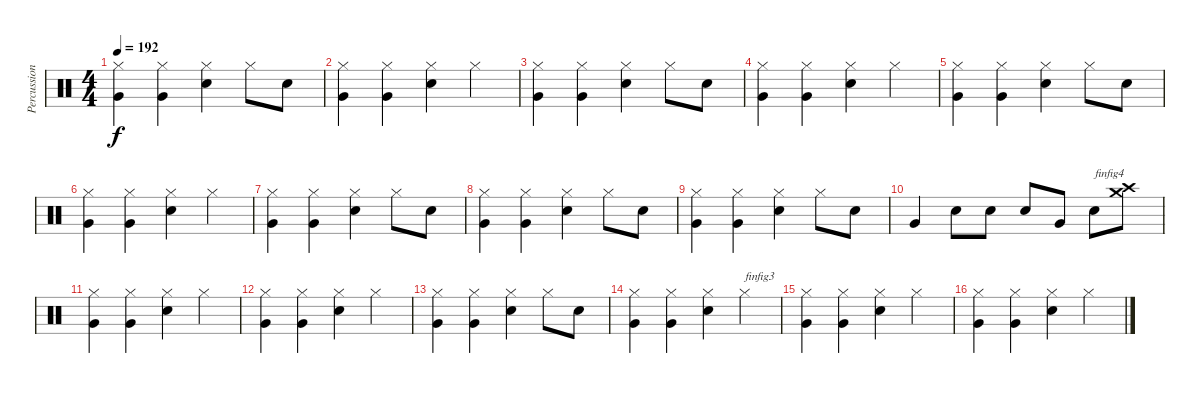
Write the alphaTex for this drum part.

\track ("Percussions" "Percussion") {instrument percussion}
\staff {score}
\articulation defaults
\ts (4 4)
\tempo 192
\clef neutral
\ks c
("Very Low Tom (hit)" "Hi-Hat (closed)").4{dy f} ("Very Low Tom (hit)" "Hi-Hat (closed)").4 ("Snare (hit) 2" "Hi-Hat (closed)").4 "Hi-Hat (closed)".8 "Snare (hit) 2".8 |
("Very Low Tom (hit)" "Hi-Hat (closed)").4 ("Very Low Tom (hit)" "Hi-Hat (closed)").4 ("Snare (hit) 2" "Hi-Hat (closed)").4 "Hi-Hat (closed)".4 |
("Very Low Tom (hit)" "Hi-Hat (closed)").4 ("Very Low Tom (hit)" "Hi-Hat (closed)").4 ("Snare (hit) 2" "Hi-Hat (closed)").4 "Hi-Hat (closed)".8 "Snare (hit) 2".8 |
("Very Low Tom (hit)" "Hi-Hat (closed)").4 ("Very Low Tom (hit)" "Hi-Hat (closed)").4 ("Snare (hit) 2" "Hi-Hat (closed)").4 "Hi-Hat (closed)".4 |
("Very Low Tom (hit)" "Hi-Hat (closed)").4 ("Very Low Tom (hit)" "Hi-Hat (closed)").4 ("Snare (hit) 2" "Hi-Hat (closed)").4 "Hi-Hat (closed)".8 "Snare (hit) 2".8 |
("Very Low Tom (hit)" "Hi-Hat (closed)").4 ("Very Low Tom (hit)" "Hi-Hat (closed)").4 ("Snare (hit) 2" "Hi-Hat (closed)").4 "Hi-Hat (closed)".4 |
("Very Low Tom (hit)" "Hi-Hat (closed)").4 ("Very Low Tom (hit)" "Hi-Hat (closed)").4 ("Snare (hit) 2" "Hi-Hat (closed)").4 "Hi-Hat (closed)".8 "Snare (hit) 2".8 |
("Very Low Tom (hit)" "Hi-Hat (closed)").4 ("Very Low Tom (hit)" "Hi-Hat (closed)").4 ("Snare (hit) 2" "Hi-Hat (closed)").4 "Hi-Hat (closed)".8 "Snare (hit) 2".8 |
("Very Low Tom (hit)" "Hi-Hat (closed)").4 ("Very Low Tom (hit)" "Hi-Hat (closed)").4 ("Snare (hit) 2" "Hi-Hat (closed)").4 "Hi-Hat (closed)".8 "Snare (hit) 2".8 |
"Very Low Tom (hit)".4 "Snare (hit) 2".8 "Snare (hit) 2".8 "Snare (hit) 2".8 "Very Low Tom (hit)".8 "Snare (hit) 2".8{txt "finfig4"} ("Crash high (hit)" "Crash medium (hit)").8 |
("Very Low Tom (hit)" "Hi-Hat (closed)").4 ("Very Low Tom (hit)" "Hi-Hat (closed)").4 ("Snare (hit) 2" "Hi-Hat (closed)").4 "Hi-Hat (closed)".4 |
("Very Low Tom (hit)" "Hi-Hat (closed)").4 ("Very Low Tom (hit)" "Hi-Hat (closed)").4 ("Snare (hit) 2" "Hi-Hat (closed)").4 "Hi-Hat (closed)".4 |
("Very Low Tom (hit)" "Hi-Hat (closed)").4 ("Very Low Tom (hit)" "Hi-Hat (closed)").4 ("Snare (hit) 2" "Hi-Hat (closed)").4 "Hi-Hat (closed)".8 "Snare (hit) 2".8 |
("Very Low Tom (hit)" "Hi-Hat (closed)").4 ("Very Low Tom (hit)" "Hi-Hat (closed)").4 ("Snare (hit) 2" "Hi-Hat (closed)").4 "Hi-Hat (closed)".4{txt "finfig3"} |
("Very Low Tom (hit)" "Hi-Hat (closed)").4 ("Very Low Tom (hit)" "Hi-Hat (closed)").4 ("Snare (hit) 2" "Hi-Hat (closed)").4 "Hi-Hat (closed)".4 |
("Very Low Tom (hit)" "Hi-Hat (closed)").4 ("Very Low Tom (hit)" "Hi-Hat (closed)").4 ("Snare (hit) 2" "Hi-Hat (closed)").4 "Hi-Hat (closed)".4
